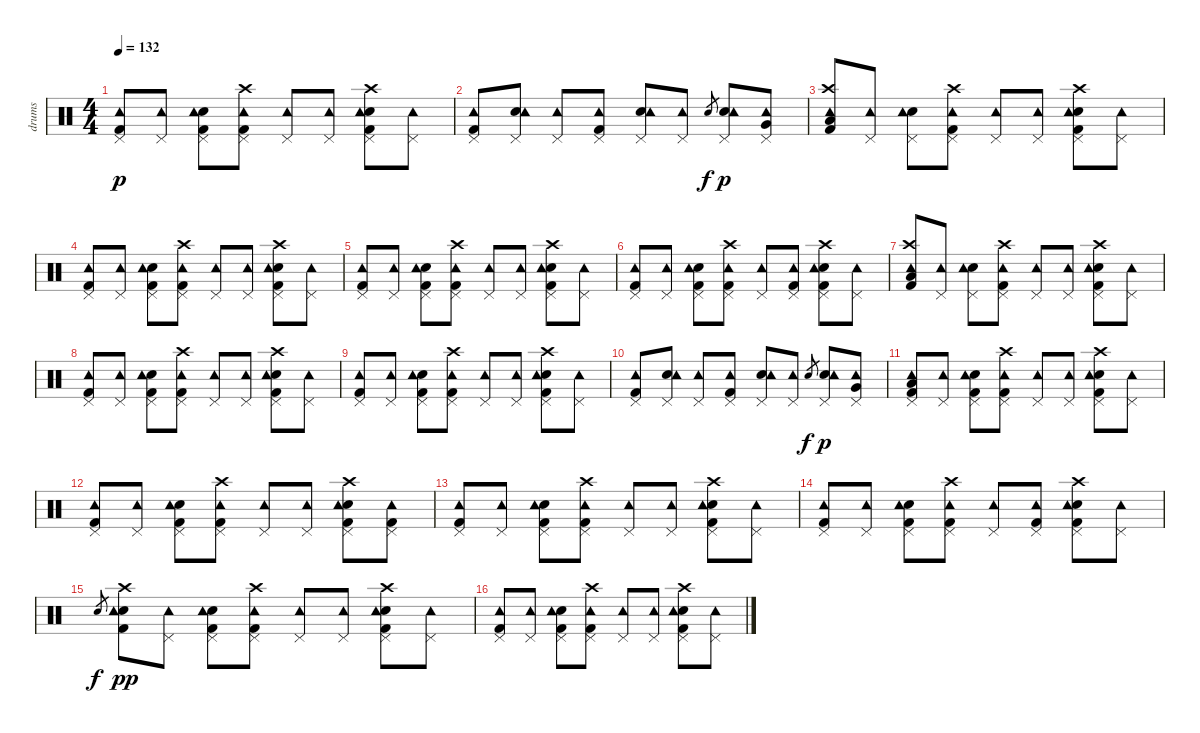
\track ("drums" "drums") {instrument percussion}
\staff {score}
\articulation defaults
\ts (4 4)
\tempo 132
\clef neutral
\ks c
("Kick (hit) 2" "Pedal Hi-Hat (hit)" "Tambourine (hit)").8{dy p} ("Pedal Hi-Hat (hit)" "Tambourine (hit)").8 ("Electric Snare (hit)" "Kick (hit) 2" "Pedal Hi-Hat (hit)" "Tambourine (hit)").8 ("Crash high (hit)" "Kick (hit) 2" "Pedal Hi-Hat (hit)" "Tambourine (hit)").8 ("Pedal Hi-Hat (hit)" "Tambourine (hit)").8 ("Pedal Hi-Hat (hit)" "Tambourine (hit)").8 ("Electric Snare (hit)" "Crash high (hit)" "Kick (hit) 2" "Pedal Hi-Hat (hit)" "Tambourine (hit)").8 ("Pedal Hi-Hat (hit)" "Tambourine (hit)").8 |
("Kick (hit) 2" "Pedal Hi-Hat (hit)" "Tambourine (hit)").8 ("Electric Snare (hit)" "Pedal Hi-Hat (hit)" "Tambourine (hit)").8 ("Pedal Hi-Hat (hit)" "Tambourine (hit)").8 ("Kick (hit) 2" "Pedal Hi-Hat (hit)" "Tambourine (hit)").8 ("Electric Snare (hit)" "Pedal Hi-Hat (hit)" "Tambourine (hit)").8 ("Pedal Hi-Hat (hit)" "Tambourine (hit)").8 "Electric Snare (hit)".8{gr dy f} ("Electric Snare (hit)" "Pedal Hi-Hat (hit)" "Tambourine (hit)").8{dy p} ("Very Low Tom (hit)" "Pedal Hi-Hat (hit)" "Tambourine (hit)").8 |
("Low Floor Tom (hit)" "Kick (hit) 2" "Crash high (hit)" "Tambourine (hit)").8 ("Pedal Hi-Hat (hit)" "Tambourine (hit)").8 ("Electric Snare (hit)" "Pedal Hi-Hat (hit)" "Tambourine (hit)").8 ("Crash high (hit)" "Kick (hit) 2" "Pedal Hi-Hat (hit)" "Tambourine (hit)").8 ("Pedal Hi-Hat (hit)" "Tambourine (hit)").8 ("Pedal Hi-Hat (hit)" "Tambourine (hit)").8 ("Electric Snare (hit)" "Crash high (hit)" "Kick (hit) 2" "Pedal Hi-Hat (hit)" "Tambourine (hit)").8 ("Pedal Hi-Hat (hit)" "Tambourine (hit)").8 |
("Kick (hit) 2" "Pedal Hi-Hat (hit)" "Tambourine (hit)").8 ("Pedal Hi-Hat (hit)" "Tambourine (hit)").8 ("Electric Snare (hit)" "Kick (hit) 2" "Pedal Hi-Hat (hit)" "Tambourine (hit)").8 ("Crash high (hit)" "Kick (hit) 2" "Pedal Hi-Hat (hit)" "Tambourine (hit)").8 ("Pedal Hi-Hat (hit)" "Tambourine (hit)").8 ("Pedal Hi-Hat (hit)" "Tambourine (hit)").8 ("Electric Snare (hit)" "Crash high (hit)" "Kick (hit) 2" "Pedal Hi-Hat (hit)" "Tambourine (hit)").8 ("Pedal Hi-Hat (hit)" "Tambourine (hit)").8 |
("Kick (hit) 2" "Pedal Hi-Hat (hit)" "Tambourine (hit)").8 ("Pedal Hi-Hat (hit)" "Tambourine (hit)").8 ("Electric Snare (hit)" "Kick (hit) 2" "Pedal Hi-Hat (hit)" "Tambourine (hit)").8 ("Crash high (hit)" "Kick (hit) 2" "Pedal Hi-Hat (hit)" "Tambourine (hit)").8 ("Pedal Hi-Hat (hit)" "Tambourine (hit)").8 ("Pedal Hi-Hat (hit)" "Tambourine (hit)").8 ("Electric Snare (hit)" "Crash high (hit)" "Kick (hit) 2" "Pedal Hi-Hat (hit)" "Tambourine (hit)").8 ("Pedal Hi-Hat (hit)" "Tambourine (hit)").8 |
("Kick (hit) 2" "Pedal Hi-Hat (hit)" "Tambourine (hit)").8 ("Pedal Hi-Hat (hit)" "Tambourine (hit)").8 ("Electric Snare (hit)" "Kick (hit) 2" "Pedal Hi-Hat (hit)" "Tambourine (hit)").8 ("Crash high (hit)" "Kick (hit) 2" "Pedal Hi-Hat (hit)" "Tambourine (hit)").8 ("Pedal Hi-Hat (hit)" "Tambourine (hit)").8 ("Kick (hit) 2" "Pedal Hi-Hat (hit)" "Tambourine (hit)").8 ("Electric Snare (hit)" "Crash high (hit)" "Kick (hit) 2" "Pedal Hi-Hat (hit)" "Tambourine (hit)").8 ("Pedal Hi-Hat (hit)" "Tambourine (hit)").8 |
("Low Floor Tom (hit)" "Kick (hit) 2" "Crash high (hit)" "Tambourine (hit)").8 ("Pedal Hi-Hat (hit)" "Tambourine (hit)").8 ("Electric Snare (hit)" "Pedal Hi-Hat (hit)" "Tambourine (hit)").8 ("Crash high (hit)" "Kick (hit) 2" "Pedal Hi-Hat (hit)" "Tambourine (hit)").8 ("Pedal Hi-Hat (hit)" "Tambourine (hit)").8 ("Pedal Hi-Hat (hit)" "Tambourine (hit)").8 ("Electric Snare (hit)" "Crash high (hit)" "Kick (hit) 2" "Pedal Hi-Hat (hit)" "Tambourine (hit)").8 ("Pedal Hi-Hat (hit)" "Tambourine (hit)").8 |
("Kick (hit) 2" "Pedal Hi-Hat (hit)" "Tambourine (hit)").8 ("Pedal Hi-Hat (hit)" "Tambourine (hit)").8 ("Electric Snare (hit)" "Kick (hit) 2" "Pedal Hi-Hat (hit)" "Tambourine (hit)").8 ("Crash high (hit)" "Kick (hit) 2" "Pedal Hi-Hat (hit)" "Tambourine (hit)").8 ("Pedal Hi-Hat (hit)" "Tambourine (hit)").8 ("Pedal Hi-Hat (hit)" "Tambourine (hit)").8 ("Electric Snare (hit)" "Crash high (hit)" "Kick (hit) 2" "Pedal Hi-Hat (hit)" "Tambourine (hit)").8 ("Pedal Hi-Hat (hit)" "Tambourine (hit)").8 |
("Kick (hit) 2" "Pedal Hi-Hat (hit)" "Tambourine (hit)").8 ("Pedal Hi-Hat (hit)" "Tambourine (hit)").8 ("Electric Snare (hit)" "Kick (hit) 2" "Pedal Hi-Hat (hit)" "Tambourine (hit)").8 ("Crash high (hit)" "Kick (hit) 2" "Pedal Hi-Hat (hit)" "Tambourine (hit)").8 ("Pedal Hi-Hat (hit)" "Tambourine (hit)").8 ("Pedal Hi-Hat (hit)" "Tambourine (hit)").8 ("Electric Snare (hit)" "Crash high (hit)" "Kick (hit) 2" "Pedal Hi-Hat (hit)" "Tambourine (hit)").8 ("Pedal Hi-Hat (hit)" "Tambourine (hit)").8 |
("Kick (hit) 2" "Pedal Hi-Hat (hit)" "Tambourine (hit)").8 ("Electric Snare (hit)" "Pedal Hi-Hat (hit)" "Tambourine (hit)").8 ("Pedal Hi-Hat (hit)" "Tambourine (hit)").8 ("Kick (hit) 2" "Pedal Hi-Hat (hit)" "Tambourine (hit)").8 ("Electric Snare (hit)" "Pedal Hi-Hat (hit)" "Tambourine (hit)").8 ("Pedal Hi-Hat (hit)" "Tambourine (hit)").8 "Electric Snare (hit)".8{gr dy f} ("Electric Snare (hit)" "Pedal Hi-Hat (hit)" "Tambourine (hit)").8{dy p} ("Very Low Tom (hit)" "Pedal Hi-Hat (hit)" "Tambourine (hit)").8 |
("Low Floor Tom (hit)" "Kick (hit) 2" "Pedal Hi-Hat (hit)" "Tambourine (hit)").8 ("Pedal Hi-Hat (hit)" "Tambourine (hit)").8 ("Electric Snare (hit)" "Kick (hit) 2" "Pedal Hi-Hat (hit)" "Tambourine (hit)").8 ("Crash high (hit)" "Kick (hit) 2" "Pedal Hi-Hat (hit)" "Tambourine (hit)").8 ("Pedal Hi-Hat (hit)" "Tambourine (hit)").8 ("Pedal Hi-Hat (hit)" "Tambourine (hit)").8 ("Electric Snare (hit)" "Crash high (hit)" "Kick (hit) 2" "Pedal Hi-Hat (hit)" "Tambourine (hit)").8 ("Pedal Hi-Hat (hit)" "Tambourine (hit)").8 |
("Kick (hit) 2" "Pedal Hi-Hat (hit)" "Tambourine (hit)").8 ("Pedal Hi-Hat (hit)" "Tambourine (hit)").8 ("Electric Snare (hit)" "Kick (hit) 2" "Pedal Hi-Hat (hit)" "Tambourine (hit)").8 ("Crash high (hit)" "Kick (hit) 2" "Pedal Hi-Hat (hit)" "Tambourine (hit)").8 ("Pedal Hi-Hat (hit)" "Tambourine (hit)").8 ("Pedal Hi-Hat (hit)" "Tambourine (hit)").8 ("Electric Snare (hit)" "Crash high (hit)" "Kick (hit) 2" "Pedal Hi-Hat (hit)" "Tambourine (hit)").8 ("Kick (hit) 2" "Pedal Hi-Hat (hit)" "Tambourine (hit)").8 |
("Kick (hit) 2" "Pedal Hi-Hat (hit)" "Tambourine (hit)").8 ("Pedal Hi-Hat (hit)" "Tambourine (hit)").8 ("Electric Snare (hit)" "Kick (hit) 2" "Pedal Hi-Hat (hit)" "Tambourine (hit)").8 ("Crash high (hit)" "Kick (hit) 2" "Pedal Hi-Hat (hit)" "Tambourine (hit)").8 ("Pedal Hi-Hat (hit)" "Tambourine (hit)").8 ("Pedal Hi-Hat (hit)" "Tambourine (hit)").8 ("Electric Snare (hit)" "Crash high (hit)" "Kick (hit) 2" "Pedal Hi-Hat (hit)" "Tambourine (hit)").8 ("Pedal Hi-Hat (hit)" "Tambourine (hit)").8 |
("Kick (hit) 2" "Pedal Hi-Hat (hit)" "Tambourine (hit)").8 ("Pedal Hi-Hat (hit)" "Tambourine (hit)").8 ("Electric Snare (hit)" "Kick (hit) 2" "Pedal Hi-Hat (hit)" "Tambourine (hit)").8 ("Crash high (hit)" "Kick (hit) 2" "Pedal Hi-Hat (hit)" "Tambourine (hit)").8 ("Pedal Hi-Hat (hit)" "Tambourine (hit)").8 ("Kick (hit) 2" "Pedal Hi-Hat (hit)" "Tambourine (hit)").8 ("Electric Snare (hit)" "Crash high (hit)" "Kick (hit) 2" "Pedal Hi-Hat (hit)" "Tambourine (hit)").8 ("Pedal Hi-Hat (hit)" "Tambourine (hit)").8 |
"Electric Snare (hit)".8{gr dy f} ("Electric Snare (hit)" "Kick (hit) 2" "Crash high (hit)" "Tambourine (hit)").8{dy pp} ("Pedal Hi-Hat (hit)" "Tambourine (hit)").8 ("Electric Snare (hit)" "Kick (hit) 2" "Pedal Hi-Hat (hit)" "Tambourine (hit)").8 ("Crash high (hit)" "Kick (hit) 2" "Pedal Hi-Hat (hit)" "Tambourine (hit)").8 ("Pedal Hi-Hat (hit)" "Tambourine (hit)").8 ("Pedal Hi-Hat (hit)" "Tambourine (hit)").8 ("Electric Snare (hit)" "Crash high (hit)" "Kick (hit) 2" "Pedal Hi-Hat (hit)" "Tambourine (hit)").8 ("Pedal Hi-Hat (hit)" "Tambourine (hit)").8 |
("Kick (hit) 2" "Pedal Hi-Hat (hit)" "Tambourine (hit)").8 ("Pedal Hi-Hat (hit)" "Tambourine (hit)").8 ("Electric Snare (hit)" "Kick (hit) 2" "Pedal Hi-Hat (hit)" "Tambourine (hit)").8 ("Crash high (hit)" "Kick (hit) 2" "Pedal Hi-Hat (hit)" "Tambourine (hit)").8 ("Pedal Hi-Hat (hit)" "Tambourine (hit)").8 ("Pedal Hi-Hat (hit)" "Tambourine (hit)").8 ("Electric Snare (hit)" "Crash high (hit)" "Kick (hit) 2" "Pedal Hi-Hat (hit)" "Tambourine (hit)").8 ("Pedal Hi-Hat (hit)" "Tambourine (hit)").8
